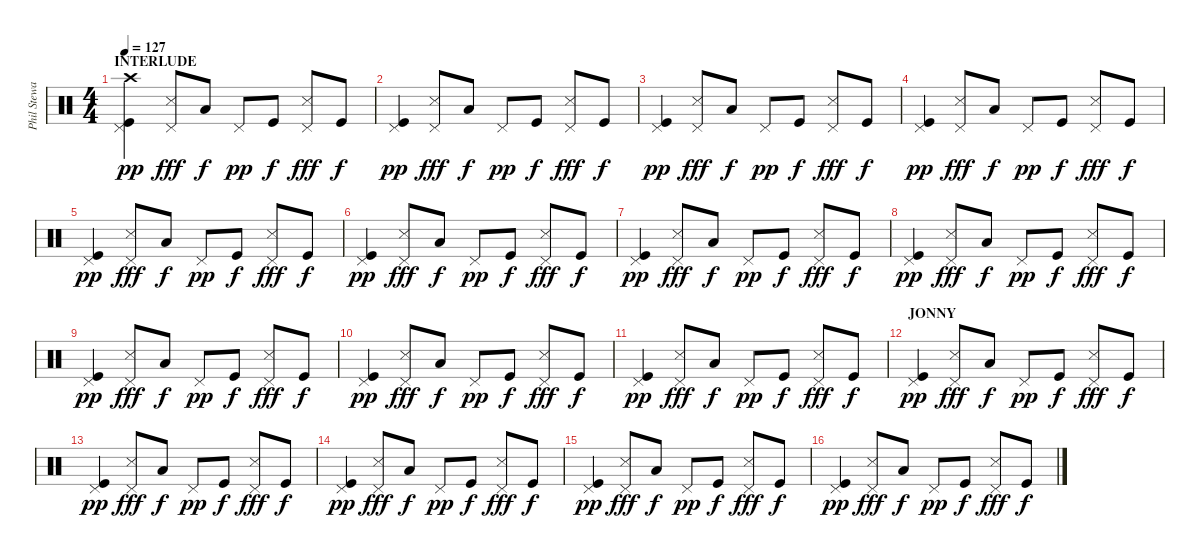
\track ("Phil Steway" "Phil Stewa") {instrument percussion}
\staff {score}
\articulation defaults
\ts (4 4)
\section ("" "INTERLUDE")
\tempo 127
\clef neutral
\ks c
("Crash high (hit)" "Pedal Hi-Hat (hit)" "Kick (hit)").4{dy pp} ("Pedal Hi-Hat (hit)" "Snare (side stick) 3").8{dy fff} "Low Tom (hit)".8{dy f} "Pedal Hi-Hat (hit)".8{dy pp} "Kick (hit)".8{dy f} ("Pedal Hi-Hat (hit)" "Snare (side stick) 3").8{dy fff} "Kick (hit)".8{dy f} |
("Pedal Hi-Hat (hit)" "Kick (hit)").4{dy pp} ("Pedal Hi-Hat (hit)" "Snare (side stick) 3").8{dy fff} "Low Tom (hit)".8{dy f} "Pedal Hi-Hat (hit)".8{dy pp} "Kick (hit)".8{dy f} ("Pedal Hi-Hat (hit)" "Snare (side stick) 3").8{dy fff} "Kick (hit)".8{dy f} |
("Pedal Hi-Hat (hit)" "Kick (hit)").4{dy pp} ("Pedal Hi-Hat (hit)" "Snare (side stick) 3").8{dy fff} "Low Tom (hit)".8{dy f} "Pedal Hi-Hat (hit)".8{dy pp} "Kick (hit)".8{dy f} ("Pedal Hi-Hat (hit)" "Snare (side stick) 3").8{dy fff} "Kick (hit)".8{dy f} |
("Pedal Hi-Hat (hit)" "Kick (hit)").4{dy pp} ("Pedal Hi-Hat (hit)" "Snare (side stick) 3").8{dy fff} "Low Tom (hit)".8{dy f} "Pedal Hi-Hat (hit)".8{dy pp} "Kick (hit)".8{dy f} ("Pedal Hi-Hat (hit)" "Snare (side stick) 3").8{dy fff} "Kick (hit)".8{dy f} |
("Pedal Hi-Hat (hit)" "Kick (hit)").4{dy pp} ("Pedal Hi-Hat (hit)" "Snare (side stick) 3").8{dy fff} "Low Tom (hit)".8{dy f} "Pedal Hi-Hat (hit)".8{dy pp} "Kick (hit)".8{dy f} ("Pedal Hi-Hat (hit)" "Snare (side stick) 3").8{dy fff} "Kick (hit)".8{dy f} |
("Pedal Hi-Hat (hit)" "Kick (hit)").4{dy pp} ("Pedal Hi-Hat (hit)" "Snare (side stick) 3").8{dy fff} "Low Tom (hit)".8{dy f} "Pedal Hi-Hat (hit)".8{dy pp} "Kick (hit)".8{dy f} ("Pedal Hi-Hat (hit)" "Snare (side stick) 3").8{dy fff} "Kick (hit)".8{dy f} |
("Pedal Hi-Hat (hit)" "Kick (hit)").4{dy pp} ("Pedal Hi-Hat (hit)" "Snare (side stick) 3").8{dy fff} "Low Tom (hit)".8{dy f} "Pedal Hi-Hat (hit)".8{dy pp} "Kick (hit)".8{dy f} ("Pedal Hi-Hat (hit)" "Snare (side stick) 3").8{dy fff} "Kick (hit)".8{dy f} |
("Pedal Hi-Hat (hit)" "Kick (hit)").4{dy pp} ("Pedal Hi-Hat (hit)" "Snare (side stick) 3").8{dy fff} "Low Tom (hit)".8{dy f} "Pedal Hi-Hat (hit)".8{dy pp} "Kick (hit)".8{dy f} ("Pedal Hi-Hat (hit)" "Snare (side stick) 3").8{dy fff} "Kick (hit)".8{dy f} |
("Pedal Hi-Hat (hit)" "Kick (hit)").4{dy pp} ("Pedal Hi-Hat (hit)" "Snare (side stick) 3").8{dy fff} "Low Tom (hit)".8{dy f} "Pedal Hi-Hat (hit)".8{dy pp} "Kick (hit)".8{dy f} ("Pedal Hi-Hat (hit)" "Snare (side stick) 3").8{dy fff} "Kick (hit)".8{dy f} |
("Pedal Hi-Hat (hit)" "Kick (hit)").4{dy pp} ("Pedal Hi-Hat (hit)" "Snare (side stick) 3").8{dy fff} "Low Tom (hit)".8{dy f} "Pedal Hi-Hat (hit)".8{dy pp} "Kick (hit)".8{dy f} ("Pedal Hi-Hat (hit)" "Snare (side stick) 3").8{dy fff} "Kick (hit)".8{dy f} |
("Pedal Hi-Hat (hit)" "Kick (hit)").4{dy pp} ("Pedal Hi-Hat (hit)" "Snare (side stick) 3").8{dy fff} "Low Tom (hit)".8{dy f} "Pedal Hi-Hat (hit)".8{dy pp} "Kick (hit)".8{dy f} ("Pedal Hi-Hat (hit)" "Snare (side stick) 3").8{dy fff} "Kick (hit)".8{dy f} |
\section ("" "JONNY")
("Pedal Hi-Hat (hit)" "Kick (hit)").4{dy pp} ("Pedal Hi-Hat (hit)" "Snare (side stick) 3").8{dy fff} "Low Tom (hit)".8{dy f} "Pedal Hi-Hat (hit)".8{dy pp} "Kick (hit)".8{dy f} ("Pedal Hi-Hat (hit)" "Snare (side stick) 3").8{dy fff} "Kick (hit)".8{dy f} |
("Pedal Hi-Hat (hit)" "Kick (hit)").4{dy pp} ("Pedal Hi-Hat (hit)" "Snare (side stick) 3").8{dy fff} "Low Tom (hit)".8{dy f} "Pedal Hi-Hat (hit)".8{dy pp} "Kick (hit)".8{dy f} ("Pedal Hi-Hat (hit)" "Snare (side stick) 3").8{dy fff} "Kick (hit)".8{dy f} |
("Pedal Hi-Hat (hit)" "Kick (hit)").4{dy pp} ("Pedal Hi-Hat (hit)" "Snare (side stick) 3").8{dy fff} "Low Tom (hit)".8{dy f} "Pedal Hi-Hat (hit)".8{dy pp} "Kick (hit)".8{dy f} ("Pedal Hi-Hat (hit)" "Snare (side stick) 3").8{dy fff} "Kick (hit)".8{dy f} |
("Pedal Hi-Hat (hit)" "Kick (hit)").4{dy pp} ("Pedal Hi-Hat (hit)" "Snare (side stick) 3").8{dy fff} "Low Tom (hit)".8{dy f} "Pedal Hi-Hat (hit)".8{dy pp} "Kick (hit)".8{dy f} ("Pedal Hi-Hat (hit)" "Snare (side stick) 3").8{dy fff} "Kick (hit)".8{dy f} |
("Pedal Hi-Hat (hit)" "Kick (hit)").4{dy pp} ("Pedal Hi-Hat (hit)" "Snare (side stick) 3").8{dy fff} "Low Tom (hit)".8{dy f} "Pedal Hi-Hat (hit)".8{dy pp} "Kick (hit)".8{dy f} ("Pedal Hi-Hat (hit)" "Snare (side stick) 3").8{dy fff} "Kick (hit)".8{dy f}
